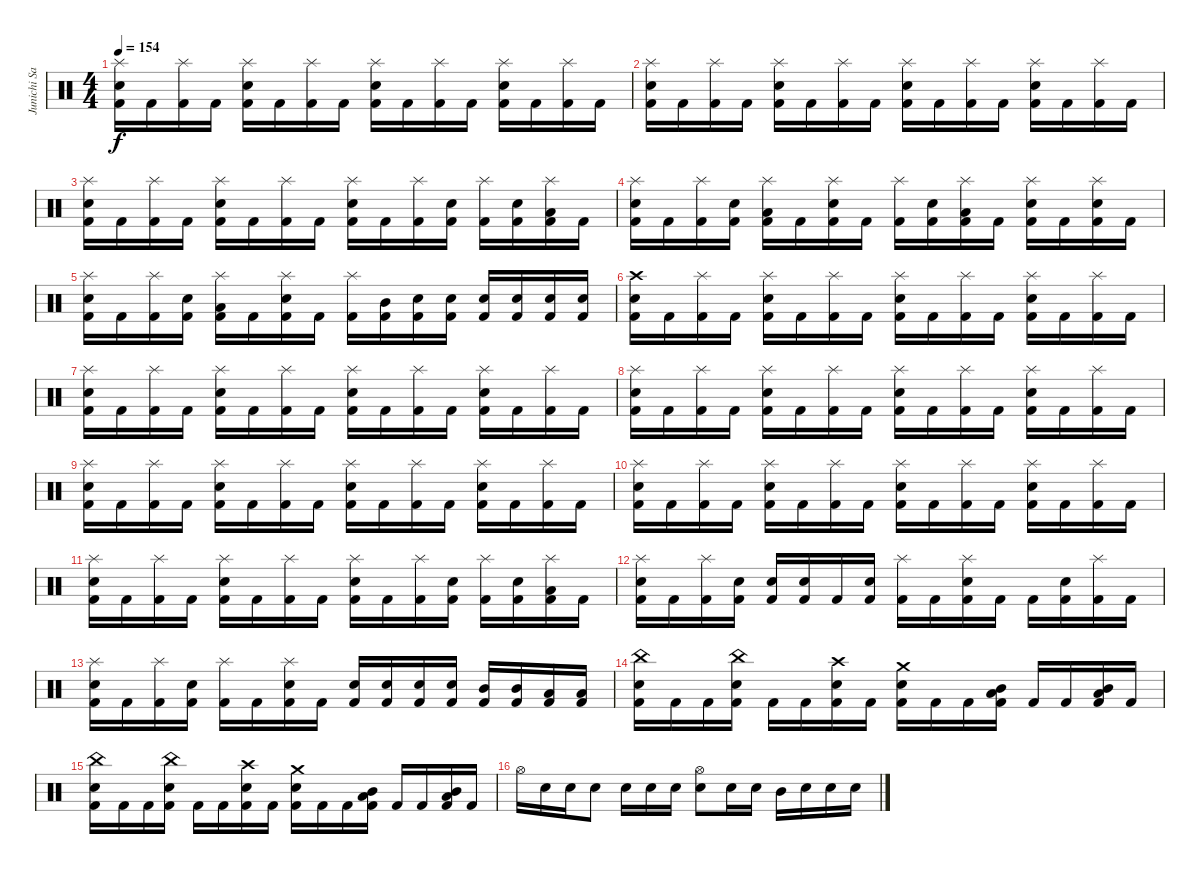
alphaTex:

\track ("Junichi Sato" "Junichi Sa") {instrument percussion}
\staff {score}
\articulation defaults
\ts (4 4)
\tempo 154
\clef neutral
\ks c
("Kick (hit) 2" "Electric Snare (hit)" "Splash (hit)").16{dy f} "Kick (hit) 2".16 ("Kick (hit) 2" "Splash (hit)").16 "Kick (hit) 2".16 ("Kick (hit) 2" "Electric Snare (hit)" "Splash (hit)").16 "Kick (hit) 2".16 ("Kick (hit) 2" "Splash (hit)").16 "Kick (hit) 2".16 ("Kick (hit) 2" "Electric Snare (hit)" "Splash (hit)").16 "Kick (hit) 2".16 ("Kick (hit) 2" "Splash (hit)").16 "Kick (hit) 2".16 ("Kick (hit) 2" "Electric Snare (hit)" "Splash (hit)").16 "Kick (hit) 2".16 ("Kick (hit) 2" "Splash (hit)").16 "Kick (hit) 2".16 |
("Kick (hit) 2" "Electric Snare (hit)" "Splash (hit)").16 "Kick (hit) 2".16 ("Kick (hit) 2" "Splash (hit)").16 "Kick (hit) 2".16 ("Kick (hit) 2" "Electric Snare (hit)" "Splash (hit)").16 "Kick (hit) 2".16 ("Kick (hit) 2" "Splash (hit)").16 "Kick (hit) 2".16 ("Kick (hit) 2" "Electric Snare (hit)" "Splash (hit)").16 "Kick (hit) 2".16 ("Kick (hit) 2" "Splash (hit)").16 "Kick (hit) 2".16 ("Kick (hit) 2" "Electric Snare (hit)" "Splash (hit)").16 "Kick (hit) 2".16 ("Kick (hit) 2" "Splash (hit)").16 "Kick (hit) 2".16 |
("Kick (hit) 2" "Electric Snare (hit)" "Splash (hit)").16 "Kick (hit) 2".16 ("Kick (hit) 2" "Splash (hit)").16 "Kick (hit) 2".16 ("Kick (hit) 2" "Electric Snare (hit)" "Splash (hit)").16 "Kick (hit) 2".16 ("Kick (hit) 2" "Splash (hit)").16 "Kick (hit) 2".16 ("Kick (hit) 2" "Electric Snare (hit)" "Splash (hit)").16 "Kick (hit) 2".16 ("Kick (hit) 2" "Splash (hit)").16 ("Kick (hit) 2" "Electric Snare (hit)").16 ("Kick (hit) 2" "Splash (hit)").16 ("Kick (hit) 2" "Electric Snare (hit)").16 ("Kick (hit) 2" "Low Tom (hit)" "Splash (hit)").16 "Kick (hit) 2".16 |
("Kick (hit) 2" "Electric Snare (hit)" "Splash (hit)").16 "Kick (hit) 2".16 ("Kick (hit) 2" "Splash (hit)").16 ("Kick (hit) 2" "Electric Snare (hit)").16 ("Kick (hit) 2" "Low Tom (hit)" "Splash (hit)").16 "Kick (hit) 2".16 ("Kick (hit) 2" "Electric Snare (hit)" "Splash (hit)").16 "Kick (hit) 2".16 ("Kick (hit) 2" "Splash (hit)").16 ("Kick (hit) 2" "Electric Snare (hit)").16 ("Kick (hit) 2" "Low Tom (hit)" "Splash (hit)").16 "Kick (hit) 2".16 ("Kick (hit) 2" "Electric Snare (hit)" "Splash (hit)").16 "Kick (hit) 2".16 ("Kick (hit) 2" "Electric Snare (hit)" "Splash (hit)").16 "Kick (hit) 2".16 |
("Kick (hit) 2" "Electric Snare (hit)" "Splash (hit)").16 "Kick (hit) 2".16 ("Kick (hit) 2" "Splash (hit)").16 ("Kick (hit) 2" "Electric Snare (hit)").16 ("Kick (hit) 2" "Low Tom (hit)" "Splash (hit)").16 "Kick (hit) 2".16 ("Kick (hit) 2" "Electric Snare (hit)" "Splash (hit)").16 "Kick (hit) 2".16 ("Kick (hit) 2" "Splash (hit)").16 ("Kick (hit) 2" "Mid Tom (hit)").16 ("Kick (hit) 2" "Electric Snare (hit)").16 ("Kick (hit) 2" "Electric Snare (hit)").16 ("Kick (hit) 2" "Electric Snare (hit)").16 ("Kick (hit) 2" "Electric Snare (hit)").16 ("Kick (hit) 2" "Electric Snare (hit)").16 ("Kick (hit) 2" "Electric Snare (hit)").16 |
("Kick (hit) 2" "Crash high (hit)" "Electric Snare (hit)").16 "Kick (hit) 2".16 ("Kick (hit) 2" "Splash (hit)").16 "Kick (hit) 2".16 ("Kick (hit) 2" "Electric Snare (hit)" "Splash (hit)").16 "Kick (hit) 2".16 ("Kick (hit) 2" "Splash (hit)").16 "Kick (hit) 2".16 ("Kick (hit) 2" "Electric Snare (hit)" "Splash (hit)").16 "Kick (hit) 2".16 ("Kick (hit) 2" "Splash (hit)").16 "Kick (hit) 2".16 ("Kick (hit) 2" "Electric Snare (hit)" "Splash (hit)").16 "Kick (hit) 2".16 ("Kick (hit) 2" "Splash (hit)").16 "Kick (hit) 2".16 |
("Kick (hit) 2" "Electric Snare (hit)" "Splash (hit)").16 "Kick (hit) 2".16 ("Kick (hit) 2" "Splash (hit)").16 "Kick (hit) 2".16 ("Kick (hit) 2" "Electric Snare (hit)" "Splash (hit)").16 "Kick (hit) 2".16 ("Kick (hit) 2" "Splash (hit)").16 "Kick (hit) 2".16 ("Kick (hit) 2" "Electric Snare (hit)" "Splash (hit)").16 "Kick (hit) 2".16 ("Kick (hit) 2" "Splash (hit)").16 "Kick (hit) 2".16 ("Kick (hit) 2" "Electric Snare (hit)" "Splash (hit)").16 "Kick (hit) 2".16 ("Kick (hit) 2" "Splash (hit)").16 "Kick (hit) 2".16 |
("Kick (hit) 2" "Electric Snare (hit)" "Splash (hit)").16 "Kick (hit) 2".16 ("Kick (hit) 2" "Splash (hit)").16 "Kick (hit) 2".16 ("Kick (hit) 2" "Electric Snare (hit)" "Splash (hit)").16 "Kick (hit) 2".16 ("Kick (hit) 2" "Splash (hit)").16 "Kick (hit) 2".16 ("Kick (hit) 2" "Electric Snare (hit)" "Splash (hit)").16 "Kick (hit) 2".16 ("Kick (hit) 2" "Splash (hit)").16 "Kick (hit) 2".16 ("Kick (hit) 2" "Electric Snare (hit)" "Splash (hit)").16 "Kick (hit) 2".16 ("Kick (hit) 2" "Splash (hit)").16 "Kick (hit) 2".16 |
("Kick (hit) 2" "Electric Snare (hit)" "Splash (hit)").16 "Kick (hit) 2".16 ("Kick (hit) 2" "Splash (hit)").16 "Kick (hit) 2".16 ("Kick (hit) 2" "Electric Snare (hit)" "Splash (hit)").16 "Kick (hit) 2".16 ("Kick (hit) 2" "Splash (hit)").16 "Kick (hit) 2".16 ("Kick (hit) 2" "Electric Snare (hit)" "Splash (hit)").16 "Kick (hit) 2".16 ("Kick (hit) 2" "Splash (hit)").16 "Kick (hit) 2".16 ("Kick (hit) 2" "Electric Snare (hit)" "Splash (hit)").16 "Kick (hit) 2".16 ("Kick (hit) 2" "Splash (hit)").16 "Kick (hit) 2".16 |
("Kick (hit) 2" "Electric Snare (hit)" "Splash (hit)").16 "Kick (hit) 2".16 ("Kick (hit) 2" "Splash (hit)").16 "Kick (hit) 2".16 ("Kick (hit) 2" "Electric Snare (hit)" "Splash (hit)").16 "Kick (hit) 2".16 ("Kick (hit) 2" "Splash (hit)").16 "Kick (hit) 2".16 ("Kick (hit) 2" "Electric Snare (hit)" "Splash (hit)").16 "Kick (hit) 2".16 ("Kick (hit) 2" "Splash (hit)").16 "Kick (hit) 2".16 ("Kick (hit) 2" "Electric Snare (hit)" "Splash (hit)").16 "Kick (hit) 2".16 ("Kick (hit) 2" "Splash (hit)").16 "Kick (hit) 2".16 |
("Kick (hit) 2" "Electric Snare (hit)" "Splash (hit)").16 "Kick (hit) 2".16 ("Kick (hit) 2" "Splash (hit)").16 "Kick (hit) 2".16 ("Kick (hit) 2" "Electric Snare (hit)" "Splash (hit)").16 "Kick (hit) 2".16 ("Kick (hit) 2" "Splash (hit)").16 "Kick (hit) 2".16 ("Kick (hit) 2" "Electric Snare (hit)" "Splash (hit)").16 "Kick (hit) 2".16 ("Kick (hit) 2" "Splash (hit)").16 ("Kick (hit) 2" "Electric Snare (hit)").16 ("Kick (hit) 2" "Splash (hit)").16 ("Kick (hit) 2" "Electric Snare (hit)").16 ("Kick (hit) 2" "Low Tom (hit)" "Splash (hit)").16 "Kick (hit) 2".16 |
("Kick (hit) 2" "Electric Snare (hit)" "Splash (hit)").16 "Kick (hit) 2".16 ("Kick (hit) 2" "Splash (hit)").16 ("Kick (hit) 2" "Electric Snare (hit)").16 ("Kick (hit) 2" "Electric Snare (hit)").16 ("Kick (hit) 2" "Electric Snare (hit)").16 "Kick (hit) 2".16 ("Kick (hit) 2" "Electric Snare (hit)").16 ("Kick (hit) 2" "Splash (hit)").16 "Kick (hit) 2".16 ("Kick (hit) 2" "Electric Snare (hit)" "Splash (hit)").16 "Kick (hit) 2".16 "Kick (hit) 2".16 ("Kick (hit) 2" "Electric Snare (hit)").16 ("Kick (hit) 2" "Splash (hit)").16 "Kick (hit) 2".16 |
("Kick (hit) 2" "Electric Snare (hit)" "Splash (hit)").16 "Kick (hit) 2".16 ("Kick (hit) 2" "Splash (hit)").16 ("Kick (hit) 2" "Electric Snare (hit)").16 ("Kick (hit) 2" "Splash (hit)").16 "Kick (hit) 2".16 ("Kick (hit) 2" "Electric Snare (hit)" "Splash (hit)").16 "Kick (hit) 2".16 ("Kick (hit) 2" "Electric Snare (hit)").16 ("Kick (hit) 2" "Electric Snare (hit)").16 ("Kick (hit) 2" "Electric Snare (hit)").16 ("Kick (hit) 2" "Electric Snare (hit)").16 ("Kick (hit) 2" "Mid Tom (hit)").16 ("Kick (hit) 2" "Mid Tom (hit)").16 ("Kick (hit) 2" "Low Tom (hit)").16 ("Kick (hit) 2" "Low Tom (hit)").16 |
("Kick (hit) 2" "Electric Snare (hit)" "China (hit)").16 "Kick (hit) 2".16 "Kick (hit) 2".16 ("Kick (hit) 2" "Electric Snare (hit)" "China (hit)").16 "Kick (hit) 2".16 "Kick (hit) 2".16 ("Kick (hit) 2" "Electric Snare (hit)" "Crash high (hit)").16 "Kick (hit) 2".16 ("Kick (hit) 2" "Electric Snare (hit)" "Crash medium (hit)").16 "Kick (hit) 2".16 "Kick (hit) 2".16 ("Kick (hit) 2" "Mid Tom (hit)" "Low Tom (hit)").16 "Kick (hit) 2".16 "Kick (hit) 2".16 ("Kick (hit) 2" "Mid Tom (hit)" "Low Tom (hit)").16 "Kick (hit) 2".16 |
("Kick (hit) 2" "Electric Snare (hit)" "China (hit)").16 "Kick (hit) 2".16 "Kick (hit) 2".16 ("Kick (hit) 2" "Electric Snare (hit)" "China (hit)").16 "Kick (hit) 2".16 "Kick (hit) 2".16 ("Kick (hit) 2" "Electric Snare (hit)" "Crash high (hit)").16 "Kick (hit) 2".16 ("Kick (hit) 2" "Electric Snare (hit)" "Crash medium (hit)").16 "Kick (hit) 2".16 "Kick (hit) 2".16 ("Kick (hit) 2" "Mid Tom (hit)" "Low Tom (hit)").16 "Kick (hit) 2".16 "Kick (hit) 2".16 ("Kick (hit) 2" "Mid Tom (hit)" "Low Tom (hit)").16 "Kick (hit) 2".16 |
"Hi-Hat (open)".16 "Electric Snare (hit)".16 "Electric Snare (hit)".16 "Electric Snare (hit)".8 "Electric Snare (hit)".16 "Electric Snare (hit)".16 "Electric Snare (hit)".16 ("Hi-Hat (open)" "Electric Snare (hit)").8 "Electric Snare (hit)".16 "Electric Snare (hit)".16 "Mid Tom (hit)".16 "Electric Snare (hit)".16 "Electric Snare (hit)".16 "Electric Snare (hit)".16
